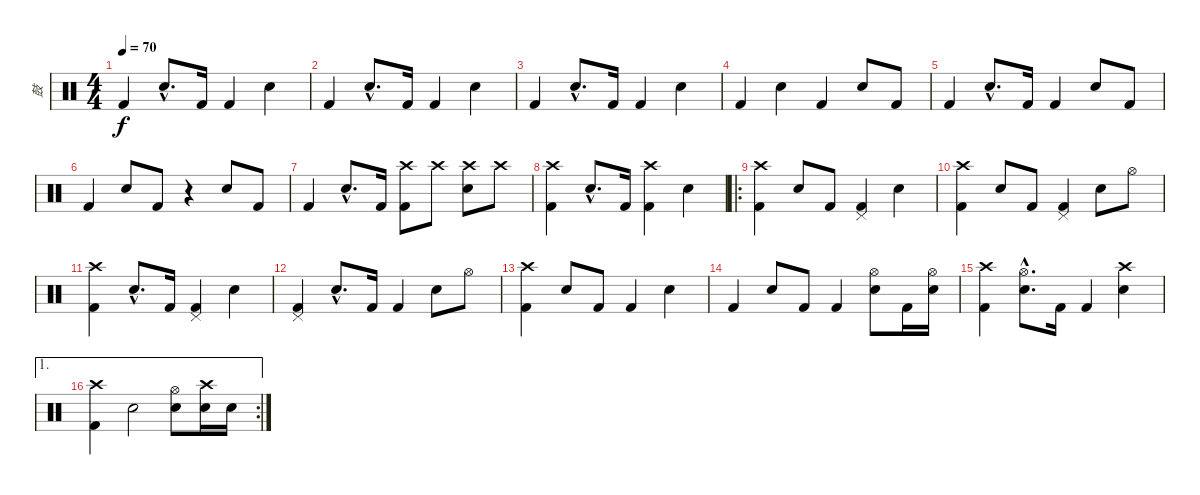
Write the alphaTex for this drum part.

\track ("鼓" "鼓") {instrument percussion}
\staff {score}
\articulation defaults
\ts (4 4)
\tempo 70
\clef neutral
\ks c "Kick (hit) 2".4{dy f} "Electric Snare (hit)"{hac}.8{d} "Kick (hit) 2".16 "Kick (hit) 2".4 "Electric Snare (hit)".4
|
"Kick (hit) 2".4 "Electric Snare (hit)"{hac}.8{d} "Kick (hit) 2".16 "Kick (hit) 2".4 "Electric Snare (hit)".4 |
"Kick (hit) 2".4 "Electric Snare (hit)"{hac}.8{d} "Kick (hit) 2".16 "Kick (hit) 2".4 "Electric Snare (hit)".4 |
"Kick (hit) 2".4 "Electric Snare (hit)".4 "Kick (hit) 2".4 "Electric Snare (hit)".8 "Kick (hit) 2".8 |
"Kick (hit) 2".4 "Electric Snare (hit)"{hac}.8{d} "Kick (hit) 2".16 "Kick (hit) 2".4 "Electric Snare (hit)".8 "Kick (hit) 2".8 |
"Kick (hit) 2".4 "Electric Snare (hit)".8 "Kick (hit) 2".8 r.4 "Electric Snare (hit)".8 "Kick (hit) 2".8 |
"Kick (hit) 2".4 "Electric Snare (hit)"{hac}.8{d} "Kick (hit) 2".16 ("Crash high (hit)" "Kick (hit) 2").8 "Crash high (hit)".8 ("Crash high (hit)" "Electric Snare (hit)").8 "Crash high (hit)".8 |
("Crash high (hit)" "Kick (hit) 2").4 "Electric Snare (hit)"{hac}.8{d} "Kick (hit) 2".16 ("Crash high (hit)" "Kick (hit) 2").4 "Electric Snare (hit)".4 |
\ro
("Crash high (hit)" "Kick (hit) 2").4 "Electric Snare (hit)".8 "Kick (hit) 2".8 ("Pedal Hi-Hat (hit)" "Kick (hit) 2").4 "Electric Snare (hit)".4 |
("Crash high (hit)" "Kick (hit) 2").4 "Electric Snare (hit)".8 "Kick (hit) 2".8 ("Pedal Hi-Hat (hit)" "Kick (hit) 2").4 "Electric Snare (hit)".8 "Hi-Hat (open)".8 |
("Crash high (hit)" "Kick (hit) 2").4 "Electric Snare (hit)"{hac}.8{d} "Kick (hit) 2".16 ("Pedal Hi-Hat (hit)" "Kick (hit) 2").4 "Electric Snare (hit)".4 |
("Pedal Hi-Hat (hit)" "Kick (hit) 2").4 "Electric Snare (hit)"{hac}.8{d} "Kick (hit) 2".16 "Kick (hit) 2".4 "Electric Snare (hit)".8 "Hi-Hat (open)".8 |
("Crash high (hit)" "Kick (hit) 2").4 "Electric Snare (hit)".8 "Kick (hit) 2".8 "Kick (hit) 2".4 "Electric Snare (hit)".4 |
"Kick (hit) 2".4 "Electric Snare (hit)".8 "Kick (hit) 2".8 "Kick (hit) 2".4 ("Hi-Hat (open)" "Electric Snare (hit)").8 "Kick (hit) 2".16 ("Hi-Hat (open)" "Snare (hit) 2").16 |
("Crash high (hit)" "Kick (hit) 2").4 ("Hi-Hat (open)"{hac} "Electric Snare (hit)"{hac}).8{d} "Kick (hit) 2".16 "Kick (hit) 2".4 ("Crash high (hit)" "Electric Snare (hit)").4 |
\ae 1
\rc 2
("Crash high (hit)" "Kick (hit) 2").4 "Electric Snare (hit)".2 ("Hi-Hat (open)" "Snare (hit) 2").8 ("Crash high (hit)" "Electric Snare (hit)").16 "Electric Snare (hit)".16
